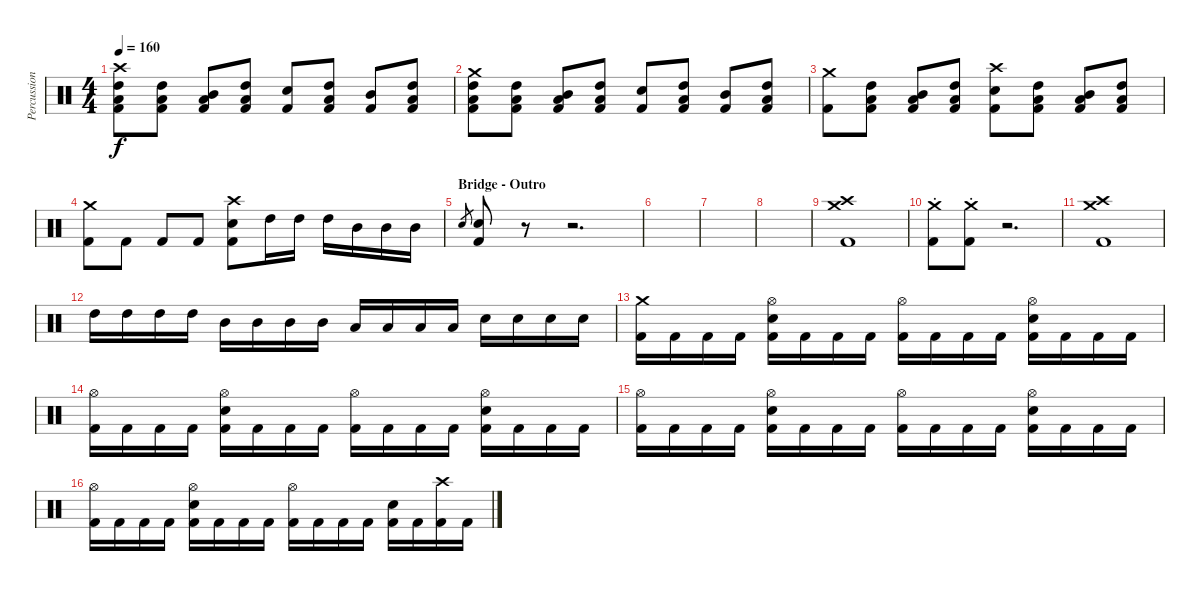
\track ("Percussions" "Percussion") {instrument percussion}
\staff {score}
\articulation defaults
\ts (4 4)
\tempo 160
\clef neutral
\ks c
("Crash high (hit)" "High Tom (hit)" "Low Tom (hit)" "Kick (hit) 2").8{dy f} ("High Tom (hit)" "Low Tom (hit)" "Kick (hit) 2").8 ("Mid Tom (hit)" "Low Tom (hit)" "Kick (hit) 2").8 ("High Tom (hit)" "Low Tom (hit)" "Kick (hit) 2").8 ("Electric Snare (hit)" "Kick (hit) 2").8 ("High Tom (hit)" "Low Tom (hit)" "Kick (hit) 2").8 ("Mid Tom (hit)" "Kick (hit) 2").8 ("High Tom (hit)" "Low Tom (hit)" "Kick (hit) 2").8 |
("Crash medium (hit)" "High Tom (hit)" "Low Tom (hit)" "Kick (hit) 2").8 ("High Tom (hit)" "Low Tom (hit)" "Kick (hit) 2").8 ("Mid Tom (hit)" "Low Tom (hit)" "Kick (hit) 2").8 ("High Tom (hit)" "Low Tom (hit)" "Kick (hit) 2").8 ("Electric Snare (hit)" "Kick (hit) 2").8 ("High Tom (hit)" "Low Tom (hit)" "Kick (hit) 2").8 ("Mid Tom (hit)" "Kick (hit) 2").8 ("High Tom (hit)" "Low Tom (hit)" "Kick (hit) 2").8 |
("Crash medium (hit)" "Kick (hit) 2").8 ("High Tom (hit)" "Low Tom (hit)" "Kick (hit) 2").8 ("Mid Tom (hit)" "Low Tom (hit)" "Kick (hit) 2").8 ("High Tom (hit)" "Low Tom (hit)" "Kick (hit) 2").8 ("Crash high (hit)" "Electric Snare (hit)" "Kick (hit) 2").8 ("High Tom (hit)" "Low Tom (hit)" "Kick (hit) 2").8 ("Mid Tom (hit)" "Low Tom (hit)" "Kick (hit) 2").8 ("High Tom (hit)" "Low Tom (hit)" "Kick (hit) 2").8 |
("Crash medium (hit)" "Kick (hit) 2").8 "Kick (hit) 2".8 "Kick (hit) 2".8 "Kick (hit) 2".8 ("Crash high (hit)" "Electric Snare (hit)" "Kick (hit) 2").8 "High Tom (hit)".16 "High Tom (hit)".16 "High Tom (hit)".16 "Mid Tom (hit)".16 "Mid Tom (hit)".16 "Mid Tom (hit)".16 |
\section ("" "Bridge - Outro")
"Electric Snare (hit)".8{gr} ("Electric Snare (hit)" "Kick (hit) 2").8 r.8 r.2{d} |
|
|
|
("Crash medium (hit)" "Crash high (hit)" "Kick (hit) 2").1 |
("Crash medium (hit)"{st} "Kick (hit) 2").8 ("Crash medium (hit)"{st} "Kick (hit) 2").8 r.2{d} |
("Crash medium (hit)" "Crash high (hit)" "Kick (hit) 2").1 |
"High Tom (hit)".16 "High Tom (hit)".16 "High Tom (hit)".16 "High Tom (hit)".16 "Mid Tom (hit)".16 "Mid Tom (hit)".16 "Mid Tom (hit)".16 "Mid Tom (hit)".16 "Low Tom (hit)".16 "Low Tom (hit)".16 "Low Tom (hit)".16 "Low Tom (hit)".16 "Electric Snare (hit)".16 "Electric Snare (hit)".16 "Electric Snare (hit)".16 "Electric Snare (hit)".16 |
("Crash medium (hit)" "Kick (hit) 2").16 "Kick (hit) 2".16 "Kick (hit) 2".16 "Kick (hit) 2".16 ("Hi-Hat (open)" "Electric Snare (hit)" "Kick (hit) 2").16 "Kick (hit) 2".16 "Kick (hit) 2".16 "Kick (hit) 2".16 ("Hi-Hat (open)" "Kick (hit) 2").16 "Kick (hit) 2".16 "Kick (hit) 2".16 "Kick (hit) 2".16 ("Hi-Hat (open)" "Electric Snare (hit)" "Kick (hit) 2").16 "Kick (hit) 2".16 "Kick (hit) 2".16 "Kick (hit) 2".16 |
("Hi-Hat (open)" "Kick (hit) 2").16 "Kick (hit) 2".16 "Kick (hit) 2".16 "Kick (hit) 2".16 ("Hi-Hat (open)" "Electric Snare (hit)" "Kick (hit) 2").16 "Kick (hit) 2".16 "Kick (hit) 2".16 "Kick (hit) 2".16 ("Hi-Hat (open)" "Kick (hit) 2").16 "Kick (hit) 2".16 "Kick (hit) 2".16 "Kick (hit) 2".16 ("Hi-Hat (open)" "Electric Snare (hit)" "Kick (hit) 2").16 "Kick (hit) 2".16 "Kick (hit) 2".16 "Kick (hit) 2".16 |
("Hi-Hat (open)" "Kick (hit) 2").16 "Kick (hit) 2".16 "Kick (hit) 2".16 "Kick (hit) 2".16 ("Hi-Hat (open)" "Electric Snare (hit)" "Kick (hit) 2").16 "Kick (hit) 2".16 "Kick (hit) 2".16 "Kick (hit) 2".16 ("Hi-Hat (open)" "Kick (hit) 2").16 "Kick (hit) 2".16 "Kick (hit) 2".16 "Kick (hit) 2".16 ("Hi-Hat (open)" "Electric Snare (hit)" "Kick (hit) 2").16 "Kick (hit) 2".16 "Kick (hit) 2".16 "Kick (hit) 2".16 |
("Hi-Hat (open)" "Kick (hit) 2").16 "Kick (hit) 2".16 "Kick (hit) 2".16 "Kick (hit) 2".16 ("Hi-Hat (open)" "Electric Snare (hit)" "Kick (hit) 2").16 "Kick (hit) 2".16 "Kick (hit) 2".16 "Kick (hit) 2".16 ("Hi-Hat (open)" "Kick (hit) 2").16 "Kick (hit) 2".16 "Kick (hit) 2".16 "Kick (hit) 2".16 ("Electric Snare (hit)" "Kick (hit) 2").16 "Kick (hit) 2".16 ("Crash high (hit)" "Kick (hit) 2").16 "Kick (hit) 2".16
